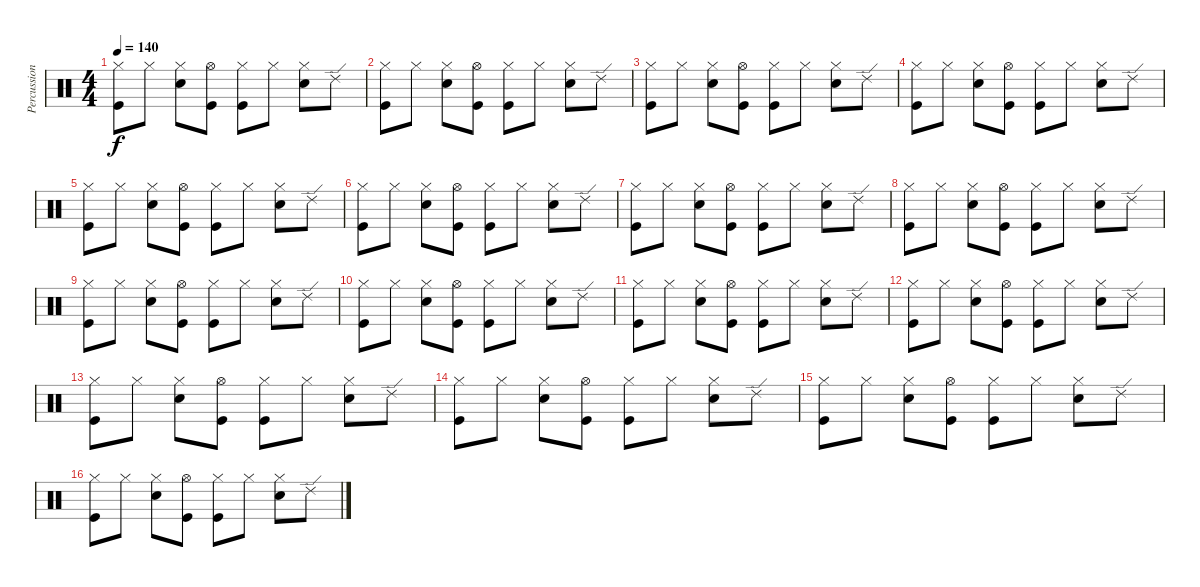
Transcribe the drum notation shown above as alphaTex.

\track ("Percussion" "Percussion") {instrument percussion}
\staff {score}
\articulation defaults
\ts (4 4)
\tempo 140
\clef neutral
\ks c
("Hi-Hat (closed)" "Kick (hit)").8{dy f} "Hi-Hat (closed)".8 ("Hi-Hat (closed)" "Snare (hit) 2").8 ("Hi-Hat (open)" "Kick (hit)").8 ("Hi-Hat (closed)" "Kick (hit)").8 "Hi-Hat (closed)".8 ("Hi-Hat (closed)" "Snare (hit) 2").8 "Ride (edge) 2".8 |
("Hi-Hat (closed)" "Kick (hit)").8 "Hi-Hat (closed)".8 ("Hi-Hat (closed)" "Snare (hit) 2").8 ("Hi-Hat (open)" "Kick (hit)").8 ("Hi-Hat (closed)" "Kick (hit)").8 "Hi-Hat (closed)".8 ("Hi-Hat (closed)" "Snare (hit) 2").8 "Ride (edge) 2".8 |
("Hi-Hat (closed)" "Kick (hit)").8 "Hi-Hat (closed)".8 ("Hi-Hat (closed)" "Snare (hit) 2").8 ("Hi-Hat (open)" "Kick (hit)").8 ("Hi-Hat (closed)" "Kick (hit)").8 "Hi-Hat (closed)".8 ("Hi-Hat (closed)" "Snare (hit) 2").8 "Ride (edge) 2".8 |
("Hi-Hat (closed)" "Kick (hit)").8 "Hi-Hat (closed)".8 ("Hi-Hat (closed)" "Snare (hit) 2").8 ("Hi-Hat (open)" "Kick (hit)").8 ("Hi-Hat (closed)" "Kick (hit)").8 "Hi-Hat (closed)".8 ("Hi-Hat (closed)" "Snare (hit) 2").8 "Ride (edge) 2".8 |
("Hi-Hat (closed)" "Kick (hit)").8 "Hi-Hat (closed)".8 ("Hi-Hat (closed)" "Snare (hit) 2").8 ("Hi-Hat (open)" "Kick (hit)").8 ("Hi-Hat (closed)" "Kick (hit)").8 "Hi-Hat (closed)".8 ("Hi-Hat (closed)" "Snare (hit) 2").8 "Ride (edge) 2".8 |
("Hi-Hat (closed)" "Kick (hit)").8 "Hi-Hat (closed)".8 ("Hi-Hat (closed)" "Snare (hit) 2").8 ("Hi-Hat (open)" "Kick (hit)").8 ("Hi-Hat (closed)" "Kick (hit)").8 "Hi-Hat (closed)".8 ("Hi-Hat (closed)" "Snare (hit) 2").8 "Ride (edge) 2".8 |
("Hi-Hat (closed)" "Kick (hit)").8 "Hi-Hat (closed)".8 ("Hi-Hat (closed)" "Snare (hit) 2").8 ("Hi-Hat (open)" "Kick (hit)").8 ("Hi-Hat (closed)" "Kick (hit)").8 "Hi-Hat (closed)".8 ("Hi-Hat (closed)" "Snare (hit) 2").8 "Ride (edge) 2".8 |
("Hi-Hat (closed)" "Kick (hit)").8 "Hi-Hat (closed)".8 ("Hi-Hat (closed)" "Snare (hit) 2").8 ("Hi-Hat (open)" "Kick (hit)").8 ("Hi-Hat (closed)" "Kick (hit)").8 "Hi-Hat (closed)".8 ("Hi-Hat (closed)" "Snare (hit) 2").8 "Ride (edge) 2".8 |
("Hi-Hat (closed)" "Kick (hit)").8 "Hi-Hat (closed)".8 ("Hi-Hat (closed)" "Snare (hit) 2").8 ("Hi-Hat (open)" "Kick (hit)").8 ("Hi-Hat (closed)" "Kick (hit)").8 "Hi-Hat (closed)".8 ("Hi-Hat (closed)" "Snare (hit) 2").8 "Ride (edge) 2".8 |
("Hi-Hat (closed)" "Kick (hit)").8 "Hi-Hat (closed)".8 ("Hi-Hat (closed)" "Snare (hit) 2").8 ("Hi-Hat (open)" "Kick (hit)").8 ("Hi-Hat (closed)" "Kick (hit)").8 "Hi-Hat (closed)".8 ("Hi-Hat (closed)" "Snare (hit) 2").8 "Ride (edge) 2".8 |
("Hi-Hat (closed)" "Kick (hit)").8 "Hi-Hat (closed)".8 ("Hi-Hat (closed)" "Snare (hit) 2").8 ("Hi-Hat (open)" "Kick (hit)").8 ("Hi-Hat (closed)" "Kick (hit)").8 "Hi-Hat (closed)".8 ("Hi-Hat (closed)" "Snare (hit) 2").8 "Ride (edge) 2".8 |
("Hi-Hat (closed)" "Kick (hit)").8 "Hi-Hat (closed)".8 ("Hi-Hat (closed)" "Snare (hit) 2").8 ("Hi-Hat (open)" "Kick (hit)").8 ("Hi-Hat (closed)" "Kick (hit)").8 "Hi-Hat (closed)".8 ("Hi-Hat (closed)" "Snare (hit) 2").8 "Ride (edge) 2".8 |
("Hi-Hat (closed)" "Kick (hit)").8 "Hi-Hat (closed)".8 ("Hi-Hat (closed)" "Snare (hit) 2").8 ("Hi-Hat (open)" "Kick (hit)").8 ("Hi-Hat (closed)" "Kick (hit)").8 "Hi-Hat (closed)".8 ("Hi-Hat (closed)" "Snare (hit) 2").8 "Ride (edge) 2".8 |
("Hi-Hat (closed)" "Kick (hit)").8 "Hi-Hat (closed)".8 ("Hi-Hat (closed)" "Snare (hit) 2").8 ("Hi-Hat (open)" "Kick (hit)").8 ("Hi-Hat (closed)" "Kick (hit)").8 "Hi-Hat (closed)".8 ("Hi-Hat (closed)" "Snare (hit) 2").8 "Ride (edge) 2".8 |
("Hi-Hat (closed)" "Kick (hit)").8 "Hi-Hat (closed)".8 ("Hi-Hat (closed)" "Snare (hit) 2").8 ("Hi-Hat (open)" "Kick (hit)").8 ("Hi-Hat (closed)" "Kick (hit)").8 "Hi-Hat (closed)".8 ("Hi-Hat (closed)" "Snare (hit) 2").8 "Ride (edge) 2".8 |
("Hi-Hat (closed)" "Kick (hit)").8 "Hi-Hat (closed)".8 ("Hi-Hat (closed)" "Snare (hit) 2").8 ("Hi-Hat (open)" "Kick (hit)").8 ("Hi-Hat (closed)" "Kick (hit)").8 "Hi-Hat (closed)".8 ("Hi-Hat (closed)" "Snare (hit) 2").8 "Ride (edge) 2".8
